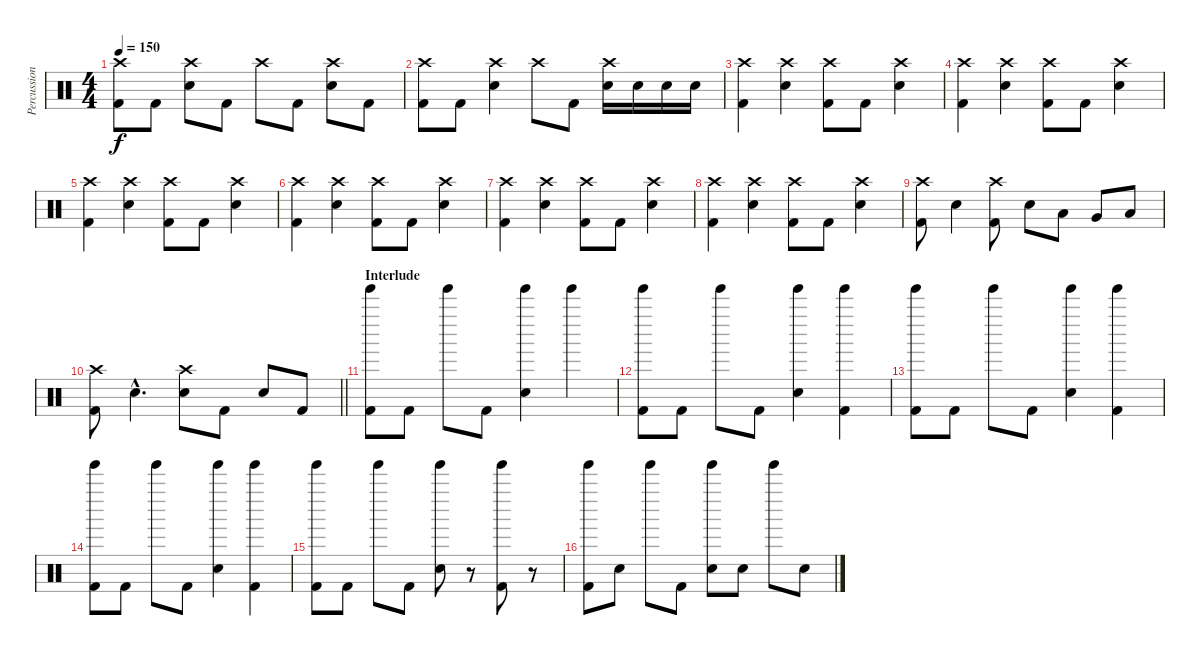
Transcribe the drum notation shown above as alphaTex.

\track ("Percussion" "Percussion") {instrument percussion}
\staff {score}
\articulation defaults
\ts (4 4)
\tempo 150
\clef neutral
\ks c
("Crash high (hit)" "Kick (hit) 2").8{dy f} "Kick (hit) 2".8 ("Crash high (hit)" "Electric Snare (hit)").8 "Kick (hit) 2".8 "Crash high (hit)".8 "Kick (hit) 2".8 ("Crash high (hit)" "Electric Snare (hit)").8 "Kick (hit) 2".8 |
("Crash high (hit)" "Kick (hit) 2").8 "Kick (hit) 2".8 ("Crash high (hit)" "Electric Snare (hit)").4 "Crash high (hit)".8 "Kick (hit) 2".8 ("Crash high (hit)" "Electric Snare (hit)").16 "Electric Snare (hit)".16 "Electric Snare (hit)".16 "Electric Snare (hit)".16 |
("Crash high (hit)" "Kick (hit) 2").4 ("Crash high (hit)" "Electric Snare (hit)").4 ("Crash high (hit)" "Kick (hit) 2").8 "Kick (hit) 2".8 ("Crash high (hit)" "Electric Snare (hit)").4 |
("Crash high (hit)" "Kick (hit) 2").4 ("Crash high (hit)" "Electric Snare (hit)").4 ("Crash high (hit)" "Kick (hit) 2").8 "Kick (hit) 2".8 ("Crash high (hit)" "Electric Snare (hit)").4 |
("Crash high (hit)" "Kick (hit) 2").4 ("Crash high (hit)" "Electric Snare (hit)").4 ("Crash high (hit)" "Kick (hit) 2").8 "Kick (hit) 2".8 ("Crash high (hit)" "Electric Snare (hit)").4 |
("Crash high (hit)" "Kick (hit) 2").4 ("Crash high (hit)" "Electric Snare (hit)").4 ("Crash high (hit)" "Kick (hit) 2").8 "Kick (hit) 2".8 ("Crash high (hit)" "Electric Snare (hit)").4 |
("Crash high (hit)" "Kick (hit) 2").4 ("Crash high (hit)" "Electric Snare (hit)").4 ("Crash high (hit)" "Kick (hit) 2").8 "Kick (hit) 2".8 ("Crash high (hit)" "Electric Snare (hit)").4 |
("Crash high (hit)" "Kick (hit) 2").4 ("Crash high (hit)" "Electric Snare (hit)").4 ("Crash high (hit)" "Kick (hit) 2").8 "Kick (hit) 2".8 ("Crash high (hit)" "Electric Snare (hit)").4 |
("Crash high (hit)" "Kick (hit) 2").8 "Electric Snare (hit)".4 ("Crash high (hit)" "Kick (hit) 2").8 "Electric Snare (hit)".8 "Low Tom (hit)".8 "Very Low Tom (hit)".8 "Low Floor Tom (hit)".8 |
\barLineRight lightlight
("Crash high (hit)" "Kick (hit) 2").8 "Electric Snare (hit)"{hac}.4{d} ("Crash high (hit)" "Electric Snare (hit)").8 "Kick (hit) 2".8 "Electric Snare (hit)".8 "Kick (hit) 2".8 |
\section ("" "Interlude")
("Tinkle Bell (hit)" "Kick (hit) 2").8 "Kick (hit) 2".8 "Tinkle Bell (hit)".8 "Kick (hit) 2".8 ("Tinkle Bell (hit)" "Electric Snare (hit)").4 "Tinkle Bell (hit)".4 |
("Tinkle Bell (hit)" "Kick (hit) 2").8 "Kick (hit) 2".8 "Tinkle Bell (hit)".8 "Kick (hit) 2".8 ("Tinkle Bell (hit)" "Electric Snare (hit)").4 ("Tinkle Bell (hit)" "Kick (hit) 2").4 |
("Tinkle Bell (hit)" "Kick (hit) 2").8 "Kick (hit) 2".8 "Tinkle Bell (hit)".8 "Kick (hit) 2".8 ("Tinkle Bell (hit)" "Electric Snare (hit)").4 ("Tinkle Bell (hit)" "Kick (hit) 2").4 |
("Tinkle Bell (hit)" "Kick (hit) 2").8 "Kick (hit) 2".8 "Tinkle Bell (hit)".8 "Kick (hit) 2".8 ("Tinkle Bell (hit)" "Electric Snare (hit)").4 ("Tinkle Bell (hit)" "Kick (hit) 2").4 |
("Tinkle Bell (hit)" "Kick (hit) 2").8 "Kick (hit) 2".8 "Tinkle Bell (hit)".8 "Kick (hit) 2".8 ("Tinkle Bell (hit)" "Electric Snare (hit)").8 r.8 ("Tinkle Bell (hit)" "Kick (hit) 2").8 r.8 |
("Tinkle Bell (hit)" "Kick (hit) 2").8 "Electric Snare (hit)".8 "Tinkle Bell (hit)".8 "Kick (hit) 2".8 ("Tinkle Bell (hit)" "Electric Snare (hit)").8 "Electric Snare (hit)".8 "Tinkle Bell (hit)".8 "Electric Snare (hit)".8
